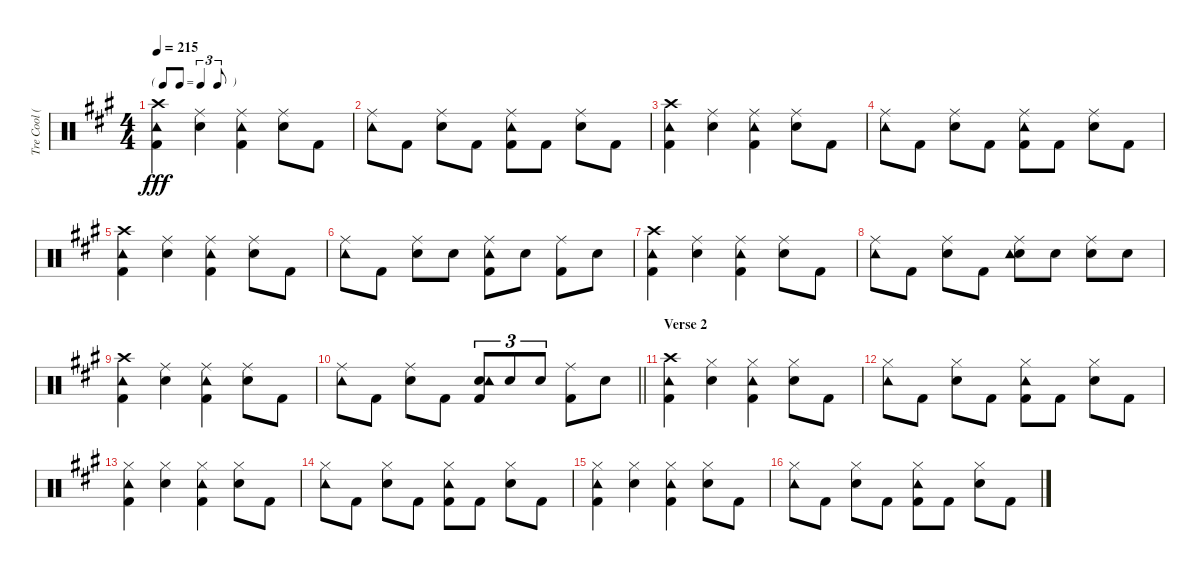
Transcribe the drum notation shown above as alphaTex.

\track ("Tre Cool (Drums)" "Tre Cool (") {instrument percussion}
\staff {score}
\articulation defaults
\ts (4 4)
\tf triplet8th
\tempo 215
\clef neutral
\ks a
("Crash high (hit)" "Kick (hit) 2" "Tambourine (hit)").4{dy fff} ("Ride (middle)" "Electric Snare (hit)").4 ("Ride (middle)" "Kick (hit) 2" "Tambourine (hit)").4 ("Ride (middle)" "Electric Snare (hit)").8 "Kick (hit) 2".8 |
("Ride (middle)" "Tambourine (hit)").8 "Kick (hit) 2".8 ("Ride (middle)" "Electric Snare (hit)").8 "Kick (hit) 2".8 ("Ride (middle)" "Kick (hit) 2" "Tambourine (hit)").8 "Kick (hit) 2".8 ("Ride (middle)" "Electric Snare (hit)").8 "Kick (hit) 2".8 |
("Crash high (hit)" "Kick (hit) 2" "Tambourine (hit)").4 ("Ride (middle)" "Electric Snare (hit)").4 ("Ride (middle)" "Kick (hit) 2" "Tambourine (hit)").4 ("Ride (middle)" "Electric Snare (hit)").8 "Kick (hit) 2".8 |
("Ride (middle)" "Tambourine (hit)").8 "Kick (hit) 2".8 ("Ride (middle)" "Electric Snare (hit)").8 "Kick (hit) 2".8 ("Ride (middle)" "Kick (hit) 2" "Tambourine (hit)").8 "Kick (hit) 2".8 ("Ride (middle)" "Electric Snare (hit)").8 "Kick (hit) 2".8 |
("Crash high (hit)" "Kick (hit) 2" "Tambourine (hit)").4 ("Ride (middle)" "Electric Snare (hit)").4 ("Ride (middle)" "Kick (hit) 2" "Tambourine (hit)").4 ("Ride (middle)" "Electric Snare (hit)").8 "Kick (hit) 2".8 |
("Ride (middle)" "Tambourine (hit)").8 "Kick (hit) 2".8 ("Ride (middle)" "Electric Snare (hit)").8 "Electric Snare (hit)".8 ("Ride (middle)" "Kick (hit) 2" "Tambourine (hit)").8 "Electric Snare (hit)".8 ("Ride (middle)" "Kick (hit) 2").8 "Electric Snare (hit)".8 |
("Crash high (hit)" "Kick (hit) 2" "Tambourine (hit)").4 ("Ride (middle)" "Electric Snare (hit)").4 ("Ride (middle)" "Kick (hit) 2" "Tambourine (hit)").4 ("Ride (middle)" "Electric Snare (hit)").8 "Kick (hit) 2".8 |
("Ride (middle)" "Tambourine (hit)").8 "Kick (hit) 2".8 ("Ride (middle)" "Electric Snare (hit)").8 "Kick (hit) 2".8 ("Ride (middle)" "Electric Snare (hit)" "Tambourine (hit)").8 "Electric Snare (hit)".8 ("Ride (middle)" "Electric Snare (hit)").8 "Electric Snare (hit)".8 |
("Crash high (hit)" "Kick (hit) 2" "Tambourine (hit)").4 ("Ride (middle)" "Electric Snare (hit)").4 ("Ride (middle)" "Kick (hit) 2" "Tambourine (hit)").4 ("Ride (middle)" "Electric Snare (hit)").8 "Kick (hit) 2".8 |
\barLineRight lightlight
("Ride (middle)" "Tambourine (hit)").8 "Kick (hit) 2".8 ("Ride (middle)" "Electric Snare (hit)").8 "Kick (hit) 2".8 ("Kick (hit) 2" "Electric Snare (hit)" "Tambourine (hit)").8{tu (3 2)} "Electric Snare (hit)".8{tu (3 2)} "Electric Snare (hit)".8{tu (3 2)} ("Ride (middle)" "Kick (hit) 2").8 "Electric Snare (hit)".8 |
\section ("" "Verse 2")
("Crash high (hit)" "Kick (hit) 2" "Tambourine (hit)").4 ("Hi-Hat (closed)" "Electric Snare (hit)").4 ("Hi-Hat (closed)" "Kick (hit) 2" "Tambourine (hit)").4 ("Hi-Hat (closed)" "Electric Snare (hit)").8 "Kick (hit) 2".8 |
("Hi-Hat (closed)" "Tambourine (hit)").8 "Kick (hit) 2".8 ("Hi-Hat (closed)" "Electric Snare (hit)").8 "Kick (hit) 2".8 ("Hi-Hat (closed)" "Kick (hit) 2" "Tambourine (hit)").8 "Kick (hit) 2".8 ("Hi-Hat (closed)" "Electric Snare (hit)").8 "Kick (hit) 2".8 |
("Hi-Hat (closed)" "Kick (hit) 2" "Tambourine (hit)").4 ("Hi-Hat (closed)" "Electric Snare (hit)").4 ("Hi-Hat (closed)" "Kick (hit) 2" "Tambourine (hit)").4 ("Hi-Hat (closed)" "Electric Snare (hit)").8 "Kick (hit) 2".8 |
("Hi-Hat (closed)" "Tambourine (hit)").8 "Kick (hit) 2".8 ("Hi-Hat (closed)" "Electric Snare (hit)").8 "Kick (hit) 2".8 ("Hi-Hat (closed)" "Kick (hit) 2" "Tambourine (hit)").8 "Kick (hit) 2".8 ("Hi-Hat (closed)" "Electric Snare (hit)").8 "Kick (hit) 2".8 |
("Hi-Hat (closed)" "Kick (hit) 2" "Tambourine (hit)").4 ("Hi-Hat (closed)" "Electric Snare (hit)").4 ("Hi-Hat (closed)" "Kick (hit) 2" "Tambourine (hit)").4 ("Hi-Hat (closed)" "Electric Snare (hit)").8 "Kick (hit) 2".8 |
("Hi-Hat (closed)" "Tambourine (hit)").8 "Kick (hit) 2".8 ("Hi-Hat (closed)" "Electric Snare (hit)").8 "Kick (hit) 2".8 ("Hi-Hat (closed)" "Kick (hit) 2" "Tambourine (hit)").8 "Kick (hit) 2".8 ("Hi-Hat (closed)" "Electric Snare (hit)").8 "Kick (hit) 2".8
